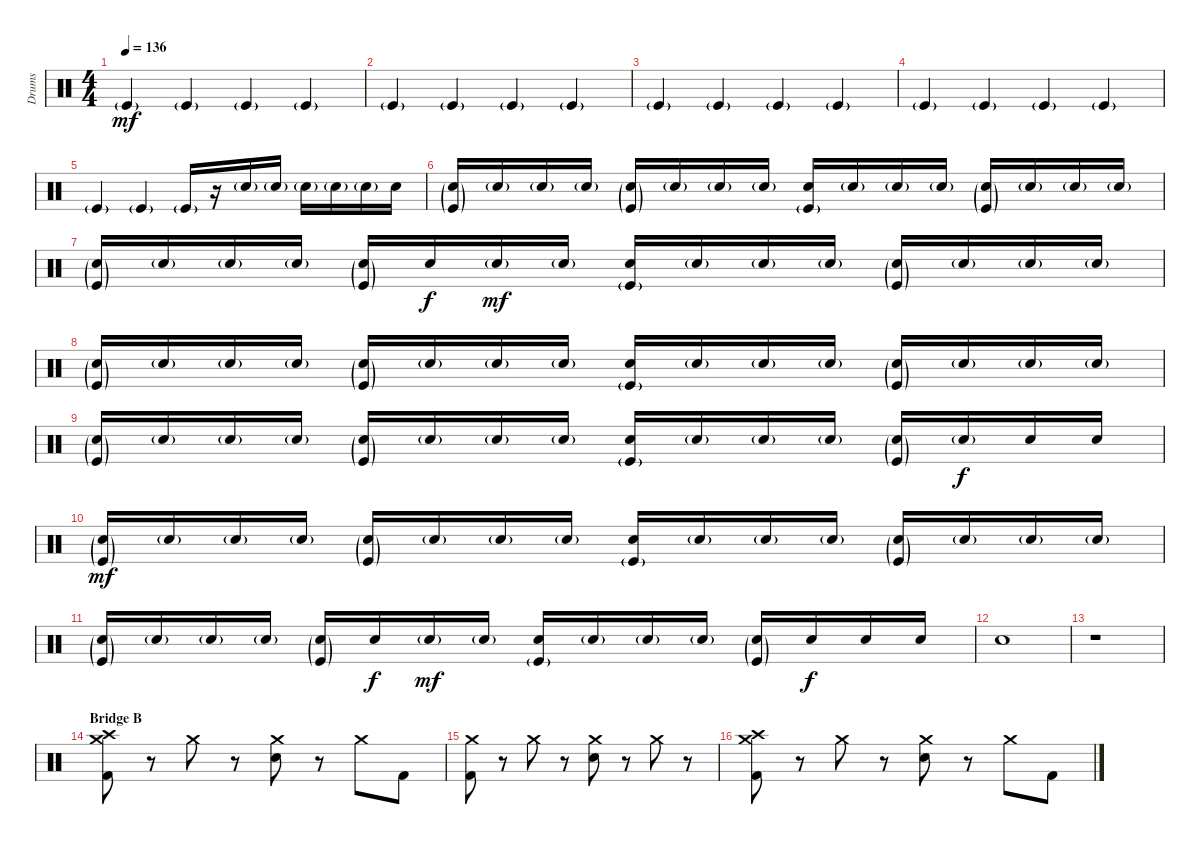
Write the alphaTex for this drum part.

\track ("Drums" "Drums") {instrument percussion}
\staff {score}
\articulation defaults
\ts (4 4)
\tempo 136
\clef neutral
\ks c "Kick (hit)"{g}.4{dy mf} "Kick (hit)"{g}.4 "Kick (hit)"{g}.4 "Kick (hit)"{g}.4
|
"Kick (hit)"{g}.4 "Kick (hit)"{g}.4 "Kick (hit)"{g}.4 "Kick (hit)"{g}.4 |
"Kick (hit)"{g}.4 "Kick (hit)"{g}.4 "Kick (hit)"{g}.4 "Kick (hit)"{g}.4 |
"Kick (hit)"{g}.4 "Kick (hit)"{g}.4 "Kick (hit)"{g}.4 "Kick (hit)"{g}.4 |
"Kick (hit)"{g}.4 "Kick (hit)"{g}.4 "Kick (hit)"{g}.16 r.16 "Snare (hit) 2"{g}.16 "Snare (hit) 2"{g}.16 "Snare (hit) 2"{g}.16 "Snare (hit) 2"{g}.16 "Snare (hit) 2"{g}.16 "Electric Snare (hit)".16 |
("Snare (hit) 2"{g} "Kick (hit)"{g}).16 "Snare (hit) 2"{g}.16 "Snare (hit) 2"{g}.16 "Snare (hit) 2"{g}.16 ("Snare (hit) 2"{g} "Kick (hit)"{g}).16 "Snare (hit) 2"{g}.16 "Snare (hit) 2"{g}.16 "Snare (hit) 2"{g}.16 ("Electric Snare (hit)" "Kick (hit)"{g}).16 "Snare (hit) 2"{g}.16 "Snare (hit) 2"{g}.16 "Snare (hit) 2"{g}.16 ("Snare (hit) 2"{g} "Kick (hit)"{g}).16 "Snare (hit) 2"{g}.16 "Snare (hit) 2"{g}.16 "Snare (hit) 2"{g}.16 |
("Snare (hit) 2"{g} "Kick (hit)"{g}).16 "Snare (hit) 2"{g}.16 "Snare (hit) 2"{g}.16 "Snare (hit) 2"{g}.16 ("Snare (hit) 2"{g} "Kick (hit)"{g}).16 "Electric Snare (hit)".16{dy f} "Snare (hit) 2"{g}.16{dy mf} "Snare (hit) 2"{g}.16 ("Electric Snare (hit)" "Kick (hit)"{g}).16 "Snare (hit) 2"{g}.16 "Snare (hit) 2"{g}.16 "Snare (hit) 2"{g}.16 ("Snare (hit) 2"{g} "Kick (hit)"{g}).16 "Snare (hit) 2"{g}.16 "Snare (hit) 2"{g}.16 "Snare (hit) 2"{g}.16 |
("Snare (hit) 2"{g} "Kick (hit)"{g}).16 "Snare (hit) 2"{g}.16 "Snare (hit) 2"{g}.16 "Snare (hit) 2"{g}.16 ("Snare (hit) 2"{g} "Kick (hit)"{g}).16 "Snare (hit) 2"{g}.16 "Snare (hit) 2"{g}.16 "Snare (hit) 2"{g}.16 ("Electric Snare (hit)" "Kick (hit)"{g}).16 "Snare (hit) 2"{g}.16 "Snare (hit) 2"{g}.16 "Snare (hit) 2"{g}.16 ("Snare (hit) 2"{g} "Kick (hit)"{g}).16 "Snare (hit) 2"{g}.16 "Snare (hit) 2"{g}.16 "Snare (hit) 2"{g}.16 |
("Snare (hit) 2"{g} "Kick (hit)"{g}).16 "Snare (hit) 2"{g}.16 "Snare (hit) 2"{g}.16 "Snare (hit) 2"{g}.16 ("Snare (hit) 2"{g} "Kick (hit)"{g}).16 "Snare (hit) 2"{g}.16 "Snare (hit) 2"{g}.16 "Snare (hit) 2"{g}.16 ("Electric Snare (hit)" "Kick (hit)"{g}).16 "Snare (hit) 2"{g}.16 "Snare (hit) 2"{g}.16 "Snare (hit) 2"{g}.16 ("Snare (hit) 2"{g} "Kick (hit)"{g}).16 "Snare (hit) 2"{g}.16{dy f} "Electric Snare (hit)".16 "Electric Snare (hit)".16 |
("Snare (hit) 2"{g} "Kick (hit)"{g}).16{dy mf} "Snare (hit) 2"{g}.16 "Snare (hit) 2"{g}.16 "Snare (hit) 2"{g}.16 ("Snare (hit) 2"{g} "Kick (hit)"{g}).16 "Snare (hit) 2"{g}.16 "Snare (hit) 2"{g}.16 "Snare (hit) 2"{g}.16 ("Electric Snare (hit)" "Kick (hit)"{g}).16 "Snare (hit) 2"{g}.16 "Snare (hit) 2"{g}.16 "Snare (hit) 2"{g}.16 ("Snare (hit) 2"{g} "Kick (hit)"{g}).16 "Snare (hit) 2"{g}.16 "Snare (hit) 2"{g}.16 "Snare (hit) 2"{g}.16 |
("Snare (hit) 2"{g} "Kick (hit)"{g}).16 "Snare (hit) 2"{g}.16 "Snare (hit) 2"{g}.16 "Snare (hit) 2"{g}.16 ("Snare (hit) 2"{g} "Kick (hit)"{g}).16 "Electric Snare (hit)".16{dy f} "Snare (hit) 2"{g}.16{dy mf} "Snare (hit) 2"{g}.16 ("Electric Snare (hit)" "Kick (hit)"{g}).16 "Snare (hit) 2"{g}.16 "Snare (hit) 2"{g}.16 "Snare (hit) 2"{g}.16 ("Snare (hit) 2"{g} "Kick (hit)"{g}).16 "Electric Snare (hit)".16{dy f} "Electric Snare (hit)".16 "Electric Snare (hit)".16 |
"Electric Snare (hit)".1 |
r.1 |
\section ("" "Bridge B")
("Crash medium (hit)" "Crash high (hit)" "Kick (hit) 2").8 r.8 "Crash medium (hit)".8 r.8 ("Crash medium (hit)" "Electric Snare (hit)").8 r.8 "Crash medium (hit)".8 "Kick (hit) 2".8 |
("Crash medium (hit)" "Kick (hit) 2").8 r.8 "Crash medium (hit)".8 r.8 ("Crash medium (hit)" "Electric Snare (hit)").8 r.8 "Crash medium (hit)".8 r.8 |
("Crash medium (hit)" "Crash high (hit)" "Kick (hit) 2").8 r.8 "Crash medium (hit)".8 r.8 ("Crash medium (hit)" "Electric Snare (hit)").8 r.8 "Crash medium (hit)".8 "Kick (hit) 2".8
